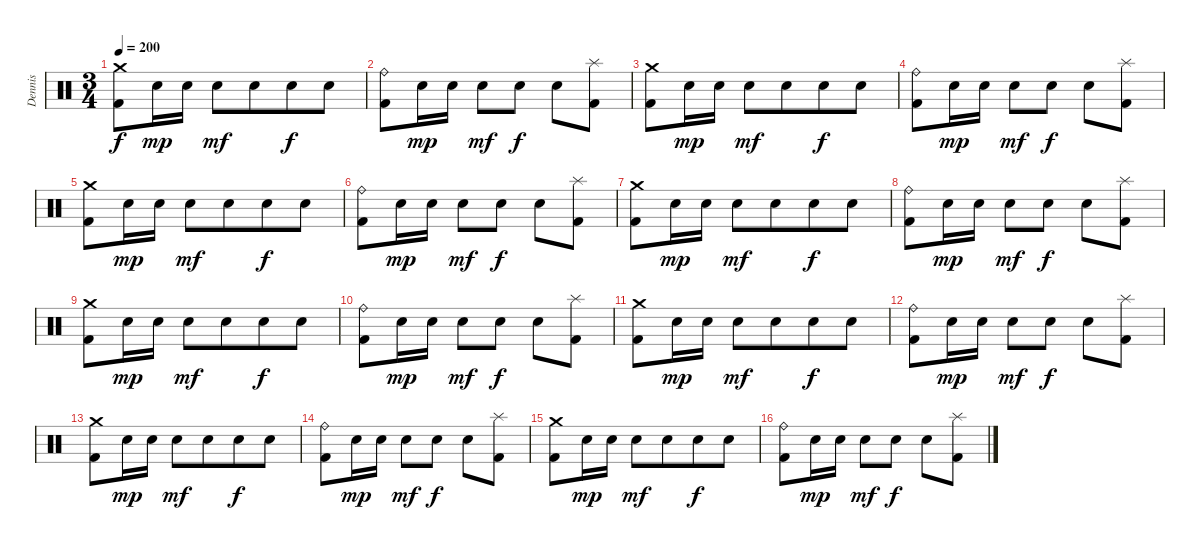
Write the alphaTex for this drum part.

\track ("Dennis" "Dennis") {instrument percussion}
\staff {score}
\articulation defaults
\ts (3 4)
\tempo 200
\clef neutral
\ks c
("Crash medium (hit)" "Kick (hit) 2").8{dy f beam merge} "Electric Snare (hit)".16{dy mp} "Electric Snare (hit)".16 "Electric Snare (hit)".8{dy mf beam merge} "Electric Snare (hit)".8{beam merge} "Electric Snare (hit)".8{dy f} "Electric Snare (hit)".8 |
("Ride (bell)" "Kick (hit) 2").8 "Electric Snare (hit)".16{dy mp} "Electric Snare (hit)".16 "Electric Snare (hit)".8{dy mf} "Electric Snare (hit)".8{dy f} "Electric Snare (hit)".8 ("Splash (hit)" "Kick (hit) 2").8 |
("Crash medium (hit)" "Kick (hit) 2").8{beam merge} "Electric Snare (hit)".16{dy mp} "Electric Snare (hit)".16 "Electric Snare (hit)".8{dy mf beam merge} "Electric Snare (hit)".8{beam merge} "Electric Snare (hit)".8{dy f} "Electric Snare (hit)".8 |
("Ride (bell)" "Kick (hit) 2").8 "Electric Snare (hit)".16{dy mp} "Electric Snare (hit)".16 "Electric Snare (hit)".8{dy mf} "Electric Snare (hit)".8{dy f} "Electric Snare (hit)".8 ("Splash (hit)" "Kick (hit) 2").8 |
("Crash medium (hit)" "Kick (hit) 2").8{beam merge} "Electric Snare (hit)".16{dy mp} "Electric Snare (hit)".16 "Electric Snare (hit)".8{dy mf beam merge} "Electric Snare (hit)".8{beam merge} "Electric Snare (hit)".8{dy f} "Electric Snare (hit)".8 |
("Ride (bell)" "Kick (hit) 2").8 "Electric Snare (hit)".16{dy mp} "Electric Snare (hit)".16 "Electric Snare (hit)".8{dy mf} "Electric Snare (hit)".8{dy f} "Electric Snare (hit)".8 ("Splash (hit)" "Kick (hit) 2").8 |
("Crash medium (hit)" "Kick (hit) 2").8{beam merge} "Electric Snare (hit)".16{dy mp} "Electric Snare (hit)".16 "Electric Snare (hit)".8{dy mf beam merge} "Electric Snare (hit)".8{beam merge} "Electric Snare (hit)".8{dy f} "Electric Snare (hit)".8 |
("Ride (bell)" "Kick (hit) 2").8 "Electric Snare (hit)".16{dy mp} "Electric Snare (hit)".16 "Electric Snare (hit)".8{dy mf} "Electric Snare (hit)".8{dy f} "Electric Snare (hit)".8 ("Splash (hit)" "Kick (hit) 2").8 |
("Crash medium (hit)" "Kick (hit) 2").8{beam merge} "Electric Snare (hit)".16{dy mp} "Electric Snare (hit)".16 "Electric Snare (hit)".8{dy mf beam merge} "Electric Snare (hit)".8{beam merge} "Electric Snare (hit)".8{dy f} "Electric Snare (hit)".8 |
("Ride (bell)" "Kick (hit) 2").8 "Electric Snare (hit)".16{dy mp} "Electric Snare (hit)".16 "Electric Snare (hit)".8{dy mf} "Electric Snare (hit)".8{dy f} "Electric Snare (hit)".8 ("Splash (hit)" "Kick (hit) 2").8 |
("Crash medium (hit)" "Kick (hit) 2").8{beam merge} "Electric Snare (hit)".16{dy mp} "Electric Snare (hit)".16 "Electric Snare (hit)".8{dy mf beam merge} "Electric Snare (hit)".8{beam merge} "Electric Snare (hit)".8{dy f} "Electric Snare (hit)".8 |
("Ride (bell)" "Kick (hit) 2").8 "Electric Snare (hit)".16{dy mp} "Electric Snare (hit)".16 "Electric Snare (hit)".8{dy mf} "Electric Snare (hit)".8{dy f} "Electric Snare (hit)".8 ("Splash (hit)" "Kick (hit) 2").8 |
("Crash medium (hit)" "Kick (hit) 2").8{beam merge} "Electric Snare (hit)".16{dy mp} "Electric Snare (hit)".16 "Electric Snare (hit)".8{dy mf beam merge} "Electric Snare (hit)".8{beam merge} "Electric Snare (hit)".8{dy f} "Electric Snare (hit)".8 |
("Ride (bell)" "Kick (hit) 2").8 "Electric Snare (hit)".16{dy mp} "Electric Snare (hit)".16 "Electric Snare (hit)".8{dy mf} "Electric Snare (hit)".8{dy f} "Electric Snare (hit)".8 ("Splash (hit)" "Kick (hit) 2").8 |
("Crash medium (hit)" "Kick (hit) 2").8{beam merge} "Electric Snare (hit)".16{dy mp} "Electric Snare (hit)".16 "Electric Snare (hit)".8{dy mf beam merge} "Electric Snare (hit)".8{beam merge} "Electric Snare (hit)".8{dy f} "Electric Snare (hit)".8 |
("Ride (bell)" "Kick (hit) 2").8 "Electric Snare (hit)".16{dy mp} "Electric Snare (hit)".16 "Electric Snare (hit)".8{dy mf} "Electric Snare (hit)".8{dy f} "Electric Snare (hit)".8 ("Splash (hit)" "Kick (hit) 2").8
